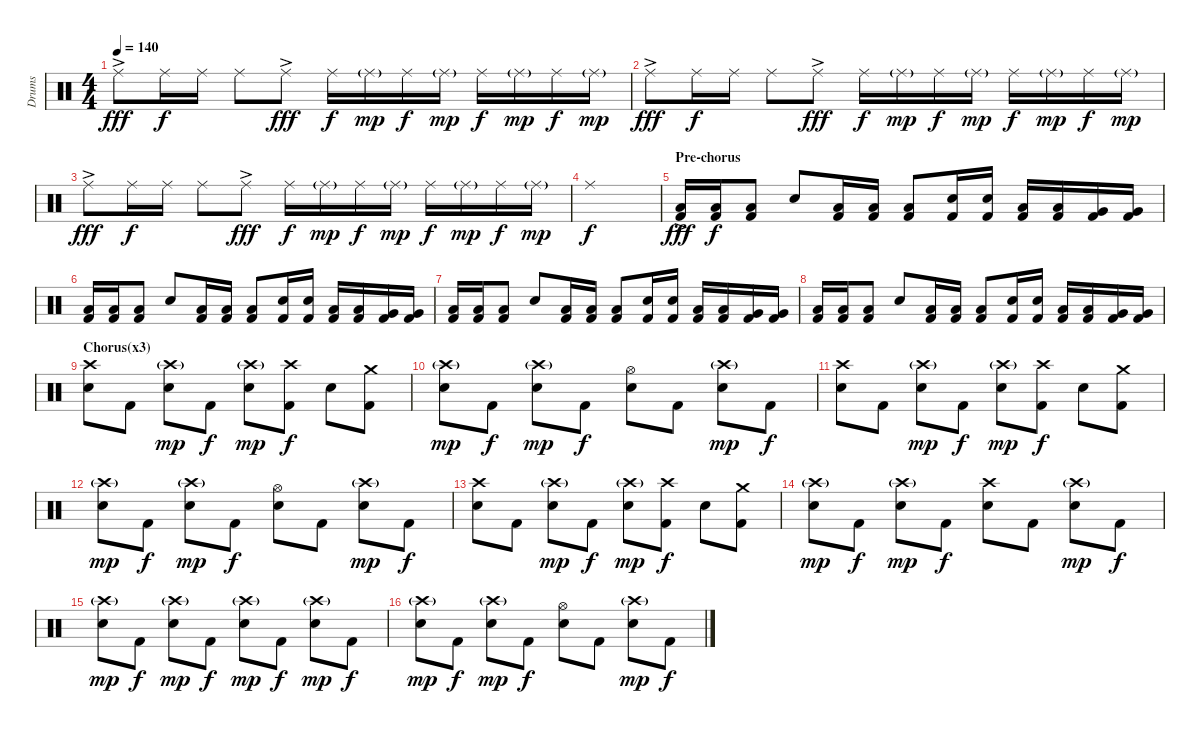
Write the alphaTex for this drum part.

\track ("Drums" "Drums") {instrument percussion}
\staff {score}
\articulation defaults
\ts (4 4)
\tempo 140
\clef neutral
\ks c "Ride (middle)"{ac}.8{dy fff} "Ride (middle)".16{dy f} "Ride (middle)".16 "Ride (middle)".8 "Ride (middle)"{ac}.8{dy fff} "Ride (middle)".16{dy f} "Ride (middle)"{g}.16{dy mp} "Ride (middle)".16{dy f} "Ride (middle)"{g}.16{dy mp} "Ride (middle)".16{dy f} "Ride (middle)"{g}.16{dy mp} "Ride (middle)".16{dy f} "Ride (middle)"{g}.16{dy mp}
|
"Ride (middle)"{ac}.8{dy fff} "Ride (middle)".16{dy f} "Ride (middle)".16 "Ride (middle)".8 "Ride (middle)"{ac}.8{dy fff} "Ride (middle)".16{dy f} "Ride (middle)"{g}.16{dy mp} "Ride (middle)".16{dy f} "Ride (middle)"{g}.16{dy mp} "Ride (middle)".16{dy f} "Ride (middle)"{g}.16{dy mp} "Ride (middle)".16{dy f} "Ride (middle)"{g}.16{dy mp} |
"Ride (middle)"{ac}.8{dy fff} "Ride (middle)".16{dy f} "Ride (middle)".16 "Ride (middle)".8 "Ride (middle)"{ac}.8{dy fff} "Ride (middle)".16{dy f} "Ride (middle)"{g}.16{dy mp} "Ride (middle)".16{dy f} "Ride (middle)"{g}.16{dy mp} "Ride (middle)".16{dy f} "Ride (middle)"{g}.16{dy mp} "Ride (middle)".16{dy f} "Ride (middle)"{g}.16{dy mp} |
"Ride (middle)".1{dy f} |
\section ("" "Pre-chorus")
("Kick (hit) 2"{ac} "Low Tom (hit)").16{dy fff volume 12 balance 8} ("Kick (hit) 2" "Low Tom (hit)").16{dy f} ("Kick (hit) 2" "Low Tom (hit)").8 "Electric Snare (hit)".8 ("Kick (hit) 2" "Low Tom (hit)").16 ("Kick (hit) 2" "Low Tom (hit)").16 ("Kick (hit) 2" "Low Tom (hit)").8 ("Kick (hit) 2" "Electric Snare (hit)").16 ("Kick (hit) 2" "Electric Snare (hit)").16 ("Kick (hit) 2" "Low Tom (hit)").16 ("Kick (hit) 2" "Low Tom (hit)").16 ("Kick (hit) 2" "Very Low Tom (hit)").16 ("Kick (hit) 2" "Very Low Tom (hit)").16 |
("Kick (hit) 2" "Low Tom (hit)").16 ("Kick (hit) 2" "Low Tom (hit)").16 ("Kick (hit) 2" "Low Tom (hit)").8 "Electric Snare (hit)".8 ("Kick (hit) 2" "Low Tom (hit)").16 ("Kick (hit) 2" "Low Tom (hit)").16 ("Kick (hit) 2" "Low Tom (hit)").8 ("Kick (hit) 2" "Electric Snare (hit)").16 ("Kick (hit) 2" "Electric Snare (hit)").16 ("Kick (hit) 2" "Low Tom (hit)").16 ("Kick (hit) 2" "Low Tom (hit)").16 ("Kick (hit) 2" "Very Low Tom (hit)").16 ("Kick (hit) 2" "Very Low Tom (hit)").16 |
("Kick (hit) 2" "Low Tom (hit)").16 ("Kick (hit) 2" "Low Tom (hit)").16 ("Kick (hit) 2" "Low Tom (hit)").8 "Electric Snare (hit)".8 ("Kick (hit) 2" "Low Tom (hit)").16 ("Kick (hit) 2" "Low Tom (hit)").16 ("Kick (hit) 2" "Low Tom (hit)").8 ("Kick (hit) 2" "Electric Snare (hit)").16 ("Kick (hit) 2" "Electric Snare (hit)").16 ("Kick (hit) 2" "Low Tom (hit)").16 ("Kick (hit) 2" "Low Tom (hit)").16 ("Kick (hit) 2" "Very Low Tom (hit)").16 ("Kick (hit) 2" "Very Low Tom (hit)").16 |
("Kick (hit) 2" "Low Tom (hit)").16 ("Kick (hit) 2" "Low Tom (hit)").16 ("Kick (hit) 2" "Low Tom (hit)").8 "Electric Snare (hit)".8 ("Kick (hit) 2" "Low Tom (hit)").16 ("Kick (hit) 2" "Low Tom (hit)").16 ("Kick (hit) 2" "Low Tom (hit)").8 ("Kick (hit) 2" "Electric Snare (hit)").16 ("Kick (hit) 2" "Electric Snare (hit)").16 ("Kick (hit) 2" "Low Tom (hit)").16 ("Kick (hit) 2" "Low Tom (hit)").16 ("Kick (hit) 2" "Very Low Tom (hit)").16 ("Kick (hit) 2" "Very Low Tom (hit)").16 |
\section ("" "Chorus(x3)")
("Electric Snare (hit)" "Crash high (hit)").8 "Kick (hit) 2".8 ("Electric Snare (hit)" "Crash high (hit)"{g}).8{dy mp} "Kick (hit) 2".8{dy f} ("Electric Snare (hit)" "Crash high (hit)"{g}).8{dy mp} ("Kick (hit) 2" "Crash high (hit)").8{dy f} "Electric Snare (hit)".8 ("Kick (hit) 2" "Crash medium (hit)").8 |
("Electric Snare (hit)" "Crash high (hit)"{g}).8{dy mp} "Kick (hit) 2".8{dy f} ("Electric Snare (hit)" "Crash high (hit)"{g}).8{dy mp} "Kick (hit) 2".8{dy f} ("Electric Snare (hit)" "Hi-Hat (open)").8 "Kick (hit) 2".8 ("Electric Snare (hit)" "Crash high (hit)"{g}).8{dy mp} "Kick (hit) 2".8{dy f} |
("Electric Snare (hit)" "Crash high (hit)").8 "Kick (hit) 2".8 ("Electric Snare (hit)" "Crash high (hit)"{g}).8{dy mp} "Kick (hit) 2".8{dy f} ("Electric Snare (hit)" "Crash high (hit)"{g}).8{dy mp} ("Kick (hit) 2" "Crash high (hit)").8{dy f} "Electric Snare (hit)".8 ("Kick (hit) 2" "Crash medium (hit)").8 |
("Electric Snare (hit)" "Crash high (hit)"{g}).8{dy mp} "Kick (hit) 2".8{dy f} ("Electric Snare (hit)" "Crash high (hit)"{g}).8{dy mp} "Kick (hit) 2".8{dy f} ("Electric Snare (hit)" "Hi-Hat (open)").8 "Kick (hit) 2".8 ("Electric Snare (hit)" "Crash high (hit)"{g}).8{dy mp} "Kick (hit) 2".8{dy f} |
("Electric Snare (hit)" "Crash high (hit)").8 "Kick (hit) 2".8 ("Electric Snare (hit)" "Crash high (hit)"{g}).8{dy mp} "Kick (hit) 2".8{dy f} ("Electric Snare (hit)" "Crash high (hit)"{g}).8{dy mp} ("Kick (hit) 2" "Crash high (hit)").8{dy f} "Electric Snare (hit)".8 ("Kick (hit) 2" "Crash medium (hit)").8 |
("Electric Snare (hit)" "Crash high (hit)"{g}).8{dy mp} "Kick (hit) 2".8{dy f} ("Electric Snare (hit)" "Crash high (hit)"{g}).8{dy mp} "Kick (hit) 2".8{dy f} ("Electric Snare (hit)" "Crash high (hit)").8 "Kick (hit) 2".8 ("Electric Snare (hit)" "Crash high (hit)"{g}).8{dy mp} "Kick (hit) 2".8{dy f} |
("Electric Snare (hit)" "Crash high (hit)"{g}).8{dy mp} "Kick (hit) 2".8{dy f} ("Electric Snare (hit)" "Crash high (hit)"{g}).8{dy mp} "Kick (hit) 2".8{dy f} ("Electric Snare (hit)" "Crash high (hit)"{g}).8{dy mp} "Kick (hit) 2".8{dy f} ("Electric Snare (hit)" "Crash high (hit)"{g}).8{dy mp} "Kick (hit) 2".8{dy f} |
("Electric Snare (hit)" "Crash high (hit)"{g}).8{dy mp} "Kick (hit) 2".8{dy f} ("Electric Snare (hit)" "Crash high (hit)"{g}).8{dy mp} "Kick (hit) 2".8{dy f} ("Electric Snare (hit)" "Hi-Hat (open)").8 "Kick (hit) 2".8 ("Electric Snare (hit)" "Crash high (hit)"{g}).8{dy mp} "Kick (hit) 2".8{dy f}
